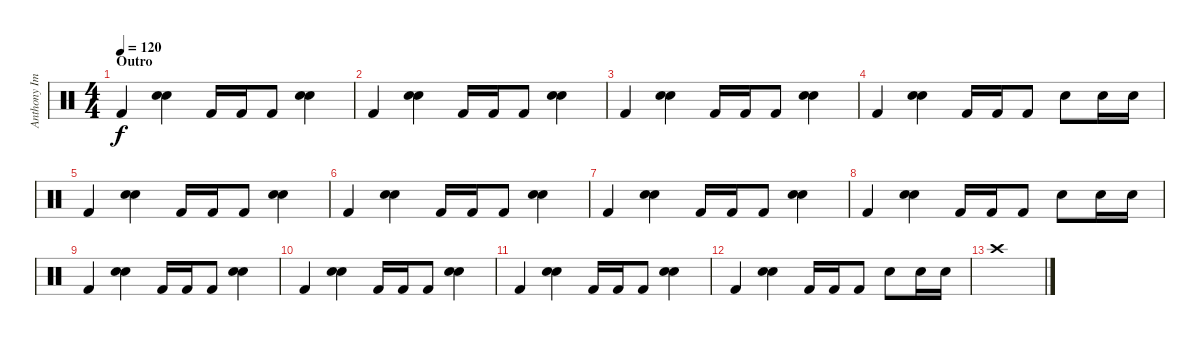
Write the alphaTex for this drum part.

\track ("Anthony Improgo (Percussion)" "Anthony Im") {instrument percussion}
\staff {score}
\articulation defaults
\ts (4 4)
\section ("" "Outro")
\tempo 120
\clef neutral
\ks c "Kick (hit) 2".4{dy f}
("Snare (hit) 2" "Snare (hit) 2").4 "Kick (hit) 2".16 "Kick (hit) 2".16 "Kick (hit) 2".8 ("Snare (hit) 2" "Snare (hit) 2").4 |
"Kick (hit) 2".4 ("Snare (hit) 2" "Snare (hit) 2").4 "Kick (hit) 2".16 "Kick (hit) 2".16 "Kick (hit) 2".8 ("Snare (hit) 2" "Snare (hit) 2").4 |
"Kick (hit) 2".4 ("Snare (hit) 2" "Snare (hit) 2").4 "Kick (hit) 2".16 "Kick (hit) 2".16 "Kick (hit) 2".8 ("Snare (hit) 2" "Snare (hit) 2").4 |
"Kick (hit) 2".4 ("Snare (hit) 2" "Snare (hit) 2").4 "Kick (hit) 2".16 "Kick (hit) 2".16 "Kick (hit) 2".8 "Snare (hit) 2".8 "Snare (hit) 2".16 "Snare (hit) 2".16 |
"Kick (hit) 2".4 ("Snare (hit) 2" "Snare (hit) 2").4 "Kick (hit) 2".16 "Kick (hit) 2".16 "Kick (hit) 2".8 ("Snare (hit) 2" "Snare (hit) 2").4 |
"Kick (hit) 2".4 ("Snare (hit) 2" "Snare (hit) 2").4 "Kick (hit) 2".16 "Kick (hit) 2".16 "Kick (hit) 2".8 ("Snare (hit) 2" "Snare (hit) 2").4 |
"Kick (hit) 2".4 ("Snare (hit) 2" "Snare (hit) 2").4 "Kick (hit) 2".16 "Kick (hit) 2".16 "Kick (hit) 2".8 ("Snare (hit) 2" "Snare (hit) 2").4 |
"Kick (hit) 2".4 ("Snare (hit) 2" "Snare (hit) 2").4 "Kick (hit) 2".16 "Kick (hit) 2".16 "Kick (hit) 2".8 "Snare (hit) 2".8 "Snare (hit) 2".16 "Snare (hit) 2".16 |
"Kick (hit) 2".4 ("Snare (hit) 2" "Snare (hit) 2").4 "Kick (hit) 2".16 "Kick (hit) 2".16 "Kick (hit) 2".8 ("Snare (hit) 2" "Snare (hit) 2").4 |
"Kick (hit) 2".4 ("Snare (hit) 2" "Snare (hit) 2").4 "Kick (hit) 2".16 "Kick (hit) 2".16 "Kick (hit) 2".8 ("Snare (hit) 2" "Snare (hit) 2").4 |
"Kick (hit) 2".4 ("Snare (hit) 2" "Snare (hit) 2").4 "Kick (hit) 2".16 "Kick (hit) 2".16 "Kick (hit) 2".8 ("Snare (hit) 2" "Snare (hit) 2").4 |
"Kick (hit) 2".4 ("Snare (hit) 2" "Snare (hit) 2").4 "Kick (hit) 2".16 "Kick (hit) 2".16 "Kick (hit) 2".8 "Snare (hit) 2".8 "Snare (hit) 2".16 "Snare (hit) 2".16 |
"Crash high (hit)".1
